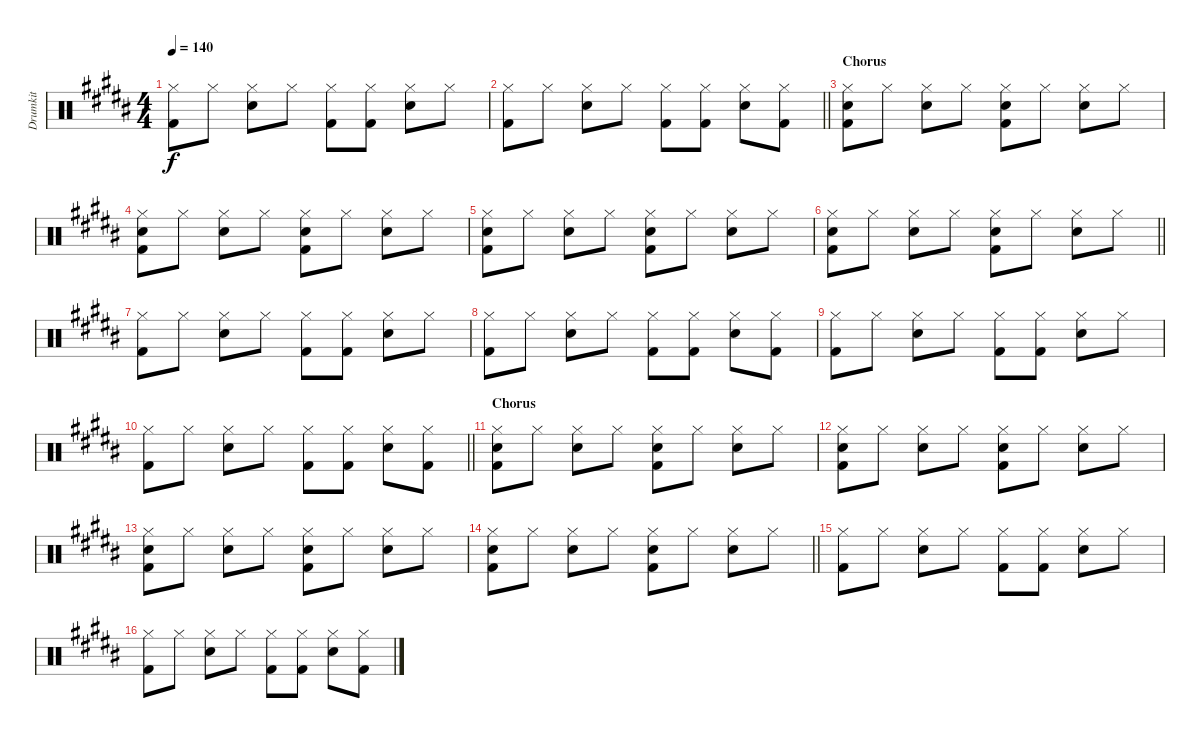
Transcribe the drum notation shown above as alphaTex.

\track ("Drumkit" "Drumkit") {instrument percussion}
\staff {score}
\articulation defaults
\ts (4 4)
\tempo 140
\clef neutral
\ks b
("Hi-Hat (closed)" "Kick (hit) 2").8{dy f} "Hi-Hat (closed)".8 ("Hi-Hat (closed)" "Snare (hit) 2").8 "Hi-Hat (closed)".8 ("Hi-Hat (closed)" "Kick (hit) 2").8 ("Hi-Hat (closed)" "Kick (hit) 2").8 ("Hi-Hat (closed)" "Snare (hit) 2").8 "Hi-Hat (closed)".8 |
\barLineRight lightlight
("Hi-Hat (closed)" "Kick (hit) 2").8 "Hi-Hat (closed)".8 ("Hi-Hat (closed)" "Snare (hit) 2").8 "Hi-Hat (closed)".8 ("Hi-Hat (closed)" "Kick (hit) 2").8 ("Hi-Hat (closed)" "Kick (hit) 2").8 ("Hi-Hat (closed)" "Snare (hit) 2").8 ("Hi-Hat (closed)" "Kick (hit) 2").8 |
\section ("" "Chorus")
("Hi-Hat (closed)" "Snare (hit) 2" "Kick (hit) 2").8 "Hi-Hat (closed)".8 ("Hi-Hat (closed)" "Snare (hit) 2").8 "Hi-Hat (closed)".8 ("Hi-Hat (closed)" "Snare (hit) 2" "Kick (hit) 2").8 "Hi-Hat (closed)".8 ("Hi-Hat (closed)" "Snare (hit) 2").8 "Hi-Hat (closed)".8 |
("Hi-Hat (closed)" "Snare (hit) 2" "Kick (hit) 2").8 "Hi-Hat (closed)".8 ("Hi-Hat (closed)" "Snare (hit) 2").8 "Hi-Hat (closed)".8 ("Hi-Hat (closed)" "Snare (hit) 2" "Kick (hit) 2").8 "Hi-Hat (closed)".8 ("Hi-Hat (closed)" "Snare (hit) 2").8 "Hi-Hat (closed)".8 |
("Hi-Hat (closed)" "Snare (hit) 2" "Kick (hit) 2").8 "Hi-Hat (closed)".8 ("Hi-Hat (closed)" "Snare (hit) 2").8 "Hi-Hat (closed)".8 ("Hi-Hat (closed)" "Snare (hit) 2" "Kick (hit) 2").8 "Hi-Hat (closed)".8 ("Hi-Hat (closed)" "Snare (hit) 2").8 "Hi-Hat (closed)".8 |
\barLineRight lightlight
("Hi-Hat (closed)" "Snare (hit) 2" "Kick (hit) 2").8 "Hi-Hat (closed)".8 ("Hi-Hat (closed)" "Snare (hit) 2").8 "Hi-Hat (closed)".8 ("Hi-Hat (closed)" "Snare (hit) 2" "Kick (hit) 2").8 "Hi-Hat (closed)".8 ("Hi-Hat (closed)" "Snare (hit) 2").8 "Hi-Hat (closed)".8 |
("Hi-Hat (closed)" "Kick (hit) 2").8 "Hi-Hat (closed)".8 ("Hi-Hat (closed)" "Snare (hit) 2").8 "Hi-Hat (closed)".8 ("Hi-Hat (closed)" "Kick (hit) 2").8 ("Hi-Hat (closed)" "Kick (hit) 2").8 ("Hi-Hat (closed)" "Snare (hit) 2").8 "Hi-Hat (closed)".8 |
("Hi-Hat (closed)" "Kick (hit) 2").8 "Hi-Hat (closed)".8 ("Hi-Hat (closed)" "Snare (hit) 2").8 "Hi-Hat (closed)".8 ("Hi-Hat (closed)" "Kick (hit) 2").8 ("Hi-Hat (closed)" "Kick (hit) 2").8 ("Hi-Hat (closed)" "Snare (hit) 2").8 ("Hi-Hat (closed)" "Kick (hit) 2").8 |
("Hi-Hat (closed)" "Kick (hit) 2").8 "Hi-Hat (closed)".8 ("Hi-Hat (closed)" "Snare (hit) 2").8 "Hi-Hat (closed)".8 ("Hi-Hat (closed)" "Kick (hit) 2").8 ("Hi-Hat (closed)" "Kick (hit) 2").8 ("Hi-Hat (closed)" "Snare (hit) 2").8 "Hi-Hat (closed)".8 |
\barLineRight lightlight
("Hi-Hat (closed)" "Kick (hit) 2").8 "Hi-Hat (closed)".8 ("Hi-Hat (closed)" "Snare (hit) 2").8 "Hi-Hat (closed)".8 ("Hi-Hat (closed)" "Kick (hit) 2").8 ("Hi-Hat (closed)" "Kick (hit) 2").8 ("Hi-Hat (closed)" "Snare (hit) 2").8 ("Hi-Hat (closed)" "Kick (hit) 2").8 |
\section ("" "Chorus")
("Hi-Hat (closed)" "Snare (hit) 2" "Kick (hit) 2").8 "Hi-Hat (closed)".8 ("Hi-Hat (closed)" "Snare (hit) 2").8 "Hi-Hat (closed)".8 ("Hi-Hat (closed)" "Snare (hit) 2" "Kick (hit) 2").8 "Hi-Hat (closed)".8 ("Hi-Hat (closed)" "Snare (hit) 2").8 "Hi-Hat (closed)".8 |
("Hi-Hat (closed)" "Snare (hit) 2" "Kick (hit) 2").8 "Hi-Hat (closed)".8 ("Hi-Hat (closed)" "Snare (hit) 2").8 "Hi-Hat (closed)".8 ("Hi-Hat (closed)" "Snare (hit) 2" "Kick (hit) 2").8 "Hi-Hat (closed)".8 ("Hi-Hat (closed)" "Snare (hit) 2").8 "Hi-Hat (closed)".8 |
("Hi-Hat (closed)" "Snare (hit) 2" "Kick (hit) 2").8 "Hi-Hat (closed)".8 ("Hi-Hat (closed)" "Snare (hit) 2").8 "Hi-Hat (closed)".8 ("Hi-Hat (closed)" "Snare (hit) 2" "Kick (hit) 2").8 "Hi-Hat (closed)".8 ("Hi-Hat (closed)" "Snare (hit) 2").8 "Hi-Hat (closed)".8 |
\barLineRight lightlight
("Hi-Hat (closed)" "Snare (hit) 2" "Kick (hit) 2").8 "Hi-Hat (closed)".8 ("Hi-Hat (closed)" "Snare (hit) 2").8 "Hi-Hat (closed)".8 ("Hi-Hat (closed)" "Snare (hit) 2" "Kick (hit) 2").8 "Hi-Hat (closed)".8 ("Hi-Hat (closed)" "Snare (hit) 2").8 "Hi-Hat (closed)".8 |
("Hi-Hat (closed)" "Kick (hit) 2").8 "Hi-Hat (closed)".8 ("Hi-Hat (closed)" "Snare (hit) 2").8 "Hi-Hat (closed)".8 ("Hi-Hat (closed)" "Kick (hit) 2").8 ("Hi-Hat (closed)" "Kick (hit) 2").8 ("Hi-Hat (closed)" "Snare (hit) 2").8 "Hi-Hat (closed)".8 |
("Hi-Hat (closed)" "Kick (hit) 2").8 "Hi-Hat (closed)".8 ("Hi-Hat (closed)" "Snare (hit) 2").8 "Hi-Hat (closed)".8 ("Hi-Hat (closed)" "Kick (hit) 2").8 ("Hi-Hat (closed)" "Kick (hit) 2").8 ("Hi-Hat (closed)" "Snare (hit) 2").8 ("Hi-Hat (closed)" "Kick (hit) 2").8
